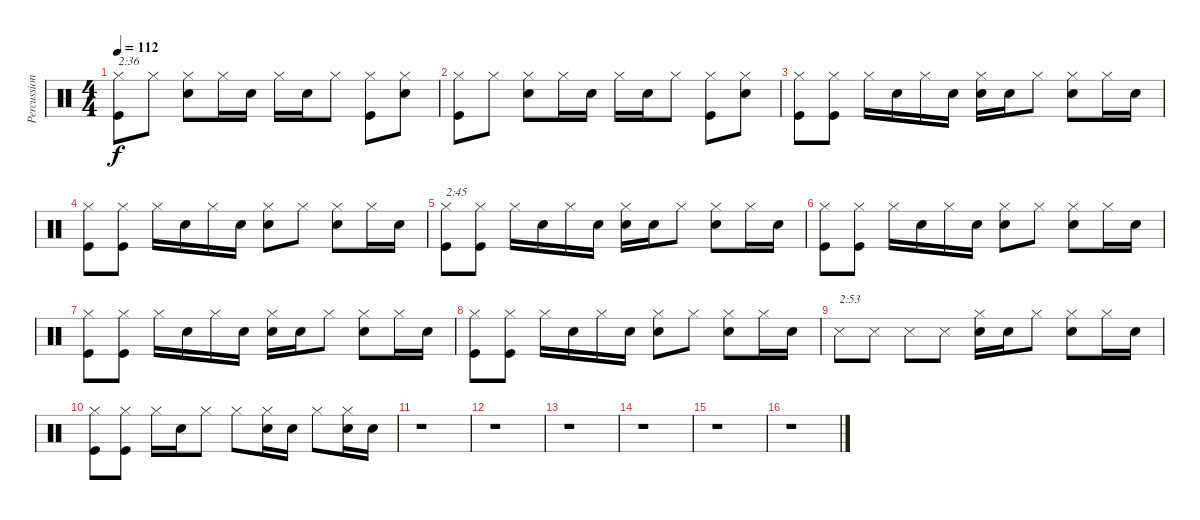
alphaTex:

\track ("Percussion 2" "Percussion") {instrument percussion}
\staff {score}
\articulation defaults
\ts (4 4)
\tempo 112
\clef neutral
\ks c
("Hi-Hat (closed)" "Kick (hit)").8{txt "2:36" dy f} "Hi-Hat (closed)".8 ("Hi-Hat (closed)" "Snare (hit) 2").8 "Hi-Hat (closed)".16 "Snare (hit) 2".16 "Hi-Hat (closed)".16 "Snare (hit) 2".16 "Hi-Hat (closed)".8 ("Hi-Hat (closed)" "Kick (hit)").8 ("Hi-Hat (closed)" "Snare (hit) 2").8 |
("Hi-Hat (closed)" "Kick (hit)").8 "Hi-Hat (closed)".8 ("Hi-Hat (closed)" "Snare (hit) 2").8 "Hi-Hat (closed)".16 "Snare (hit) 2".16 "Hi-Hat (closed)".16 "Snare (hit) 2".16 "Hi-Hat (closed)".8 ("Hi-Hat (closed)" "Kick (hit)").8 ("Hi-Hat (closed)" "Snare (hit) 2").8 |
("Hi-Hat (closed)" "Kick (hit)").8 ("Hi-Hat (closed)" "Kick (hit)").8 "Hi-Hat (closed)".16 "Snare (hit) 2".16 "Hi-Hat (closed)".16 "Snare (hit) 2".16 ("Hi-Hat (closed)" "Snare (hit) 2").16 "Snare (hit) 2".16 "Hi-Hat (closed)".8 ("Hi-Hat (closed)" "Snare (hit) 2").8 "Hi-Hat (closed)".16 "Snare (hit) 2".16 |
("Hi-Hat (closed)" "Kick (hit)").8 ("Hi-Hat (closed)" "Kick (hit)").8 "Hi-Hat (closed)".16 "Snare (hit) 2".16 "Hi-Hat (closed)".16 "Snare (hit) 2".16 ("Hi-Hat (closed)" "Snare (hit) 2").8 "Hi-Hat (closed)".8 ("Hi-Hat (closed)" "Snare (hit) 2").8 "Hi-Hat (closed)".16 "Snare (hit) 2".16 |
("Hi-Hat (closed)" "Kick (hit)").8{txt "2:45"} ("Hi-Hat (closed)" "Kick (hit)").8 "Hi-Hat (closed)".16 "Snare (hit) 2".16 "Hi-Hat (closed)".16 "Snare (hit) 2".16 ("Hi-Hat (closed)" "Snare (hit) 2").16 "Snare (hit) 2".16 "Hi-Hat (closed)".8 ("Hi-Hat (closed)" "Snare (hit) 2").8 "Hi-Hat (closed)".16 "Snare (hit) 2".16 |
("Hi-Hat (closed)" "Kick (hit)").8 ("Hi-Hat (closed)" "Kick (hit)").8 "Hi-Hat (closed)".16 "Snare (hit) 2".16 "Hi-Hat (closed)".16 "Snare (hit) 2".16 ("Hi-Hat (closed)" "Snare (hit) 2").8 "Hi-Hat (closed)".8 ("Hi-Hat (closed)" "Snare (hit) 2").8 "Hi-Hat (closed)".16 "Snare (hit) 2".16 |
("Hi-Hat (closed)" "Kick (hit)").8 ("Hi-Hat (closed)" "Kick (hit)").8 "Hi-Hat (closed)".16 "Snare (hit) 2".16 "Hi-Hat (closed)".16 "Snare (hit) 2".16 ("Hi-Hat (closed)" "Snare (hit) 2").16 "Snare (hit) 2".16 "Hi-Hat (closed)".8 ("Hi-Hat (closed)" "Snare (hit) 2").8 "Hi-Hat (closed)".16 "Snare (hit) 2".16 |
("Hi-Hat (closed)" "Kick (hit)").8 ("Hi-Hat (closed)" "Kick (hit)").8 "Hi-Hat (closed)".16 "Snare (hit) 2".16 "Hi-Hat (closed)".16 "Snare (hit) 2".16 ("Hi-Hat (closed)" "Snare (hit) 2").8 "Hi-Hat (closed)".8 ("Hi-Hat (closed)" "Snare (hit) 2").8 "Hi-Hat (closed)".16 "Snare (hit) 2".16 |
"Snare (side stick) 3".8{txt "2:53"} "Snare (side stick) 3".8 "Snare (side stick) 3".8 "Snare (side stick) 3".8 ("Hi-Hat (closed)" "Snare (hit) 2").16 "Snare (hit) 2".16 "Hi-Hat (closed)".8 ("Hi-Hat (closed)" "Snare (hit) 2").8 "Hi-Hat (closed)".16 "Snare (hit) 2".16 |
("Hi-Hat (closed)" "Kick (hit)").8 ("Hi-Hat (closed)" "Kick (hit)").8 "Hi-Hat (closed)".16 "Snare (hit) 2".16 "Hi-Hat (closed)".8 "Hi-Hat (closed)".8 ("Hi-Hat (closed)" "Snare (hit) 2").16 "Snare (hit) 2".16 "Hi-Hat (closed)".8 ("Hi-Hat (closed)" "Snare (hit) 2").16 "Snare (hit) 2".16 |
r.1 |
r.1 |
r.1 |
r.1 |
r.1 |
r.1
